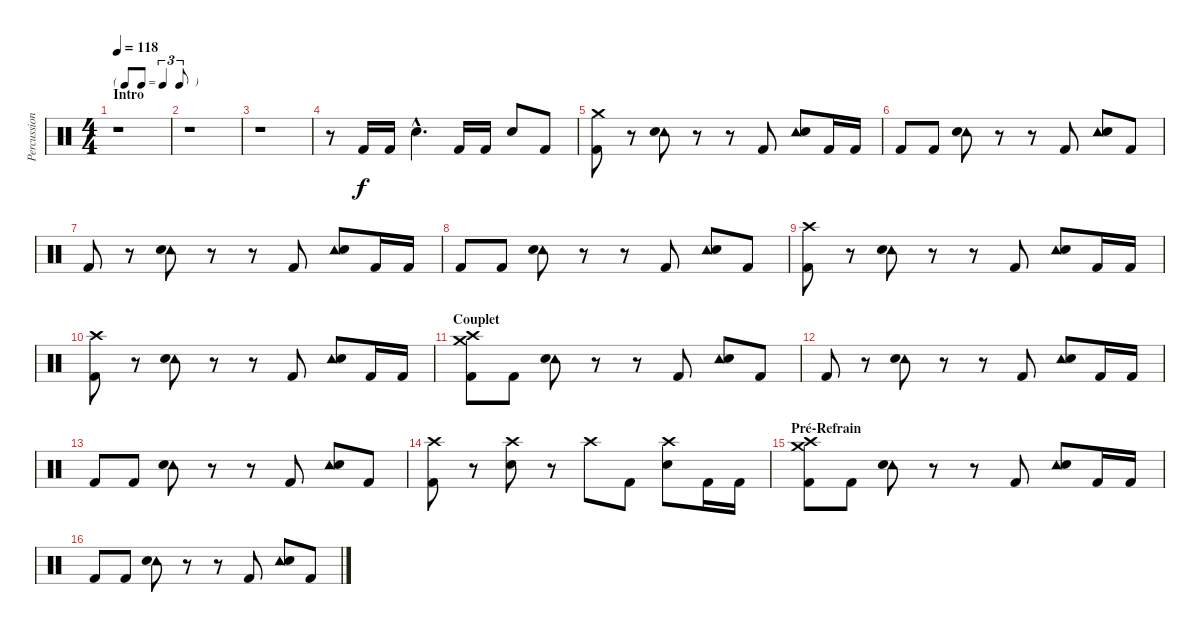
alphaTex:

\track ("Percussions" "Percussion") {instrument percussion}
\staff {score}
\articulation defaults
\ts (4 4)
\tf triplet8th
\section ("" "Intro")
\tempo 118
\clef neutral
\ks c
r.1{dy f} |
r.1 |
r.1 |
r.8 "Kick (hit) 2".16 "Kick (hit) 2".16 "Snare (hit) 2"{hac}.4{d} "Kick (hit) 2".16 "Kick (hit) 2".16 "Snare (hit) 2".8 "Kick (hit) 2".8 |
("Crash medium (hit)" "Kick (hit) 2").8 r.8 ("Tambourine (hit)" "Snare (hit) 2").8 r.8 r.8 "Kick (hit) 2".8 ("Tambourine (hit)" "Snare (hit) 2").8 "Kick (hit) 2".16 "Kick (hit) 2".16 |
"Kick (hit) 2".8 "Kick (hit) 2".8 ("Tambourine (hit)" "Snare (hit) 2").8 r.8 r.8 "Kick (hit) 2".8 ("Tambourine (hit)" "Snare (hit) 2").8 "Kick (hit) 2".8 |
"Kick (hit) 2".8 r.8 ("Tambourine (hit)" "Snare (hit) 2").8 r.8 r.8 "Kick (hit) 2".8 ("Tambourine (hit)" "Snare (hit) 2").8 "Kick (hit) 2".16 "Kick (hit) 2".16 |
"Kick (hit) 2".8 "Kick (hit) 2".8 ("Tambourine (hit)" "Snare (hit) 2").8 r.8 r.8 "Kick (hit) 2".8 ("Tambourine (hit)" "Snare (hit) 2").8 "Kick (hit) 2".8 |
("Crash high (hit)" "Kick (hit) 2").8 r.8 ("Tambourine (hit)" "Snare (hit) 2").8 r.8 r.8 "Kick (hit) 2".8 ("Tambourine (hit)" "Snare (hit) 2").8 "Kick (hit) 2".16 "Kick (hit) 2".16 |
("Crash high (hit)" "Kick (hit) 2").8 r.8 ("Tambourine (hit)" "Snare (hit) 2").8 r.8 r.8 "Kick (hit) 2".8 ("Tambourine (hit)" "Snare (hit) 2").8 "Kick (hit) 2".16 "Kick (hit) 2".16 |
\section ("" "Couplet")
("Crash medium (hit)" "Crash high (hit)" "Kick (hit) 2").8 "Kick (hit) 2".8 ("Tambourine (hit)" "Snare (hit) 2").8 r.8 r.8 "Kick (hit) 2".8 ("Tambourine (hit)" "Snare (hit) 2").8 "Kick (hit) 2".8 |
"Kick (hit) 2".8 r.8 ("Tambourine (hit)" "Snare (hit) 2").8 r.8 r.8 "Kick (hit) 2".8 ("Tambourine (hit)" "Snare (hit) 2").8 "Kick (hit) 2".16 "Kick (hit) 2".16 |
"Kick (hit) 2".8 "Kick (hit) 2".8 ("Tambourine (hit)" "Snare (hit) 2").8 r.8 r.8 "Kick (hit) 2".8 ("Tambourine (hit)" "Snare (hit) 2").8 "Kick (hit) 2".8 |
("Crash high (hit)" "Kick (hit) 2").8 r.8 ("Crash high (hit)" "Snare (hit) 2").8 r.8 "Crash high (hit)".8 "Kick (hit) 2".8 ("Crash high (hit)" "Snare (hit) 2").8 "Kick (hit) 2".16 "Kick (hit) 2".16 |
\section ("" "Pré-Refrain")
("Crash medium (hit)" "Crash high (hit)" "Kick (hit) 2").8 "Kick (hit) 2".8 ("Tambourine (hit)" "Snare (hit) 2").8 r.8 r.8 "Kick (hit) 2".8 ("Tambourine (hit)" "Snare (hit) 2").8 "Kick (hit) 2".16 "Kick (hit) 2".16 |
"Kick (hit) 2".8 "Kick (hit) 2".8 ("Tambourine (hit)" "Snare (hit) 2").8 r.8 r.8 "Kick (hit) 2".8 ("Tambourine (hit)" "Snare (hit) 2").8 "Kick (hit) 2".8
